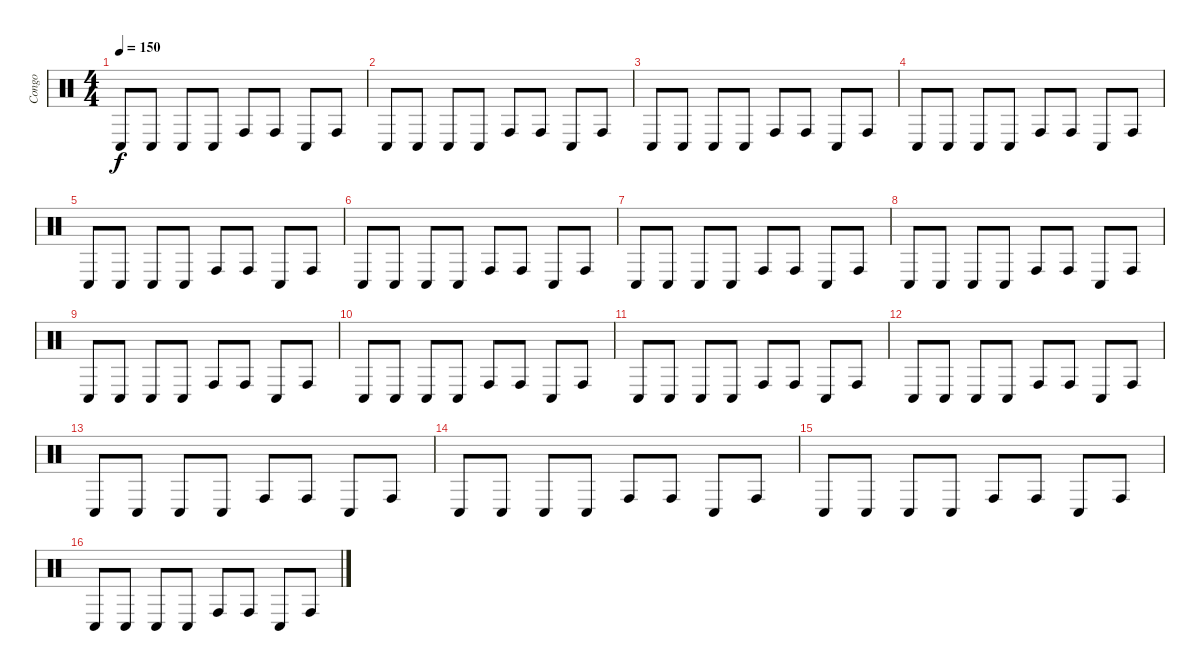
\track ("Congo" "Congo") {instrument percussion}
\staff {score}
\articulation defaults
\ts (4 4)
\tempo 150
\clef neutral
\ks c "Conga low (hit)".8{dy f} "Conga low (hit)".8 "Conga low (hit)".8 "Conga low (hit)".8 "Conga high (hit)".8 "Conga high (hit)".8 "Conga low (hit)".8 "Conga high (hit)".8
|
"Conga low (hit)".8 "Conga low (hit)".8 "Conga low (hit)".8 "Conga low (hit)".8 "Conga high (hit)".8 "Conga high (hit)".8 "Conga low (hit)".8 "Conga high (hit)".8 |
"Conga low (hit)".8 "Conga low (hit)".8 "Conga low (hit)".8 "Conga low (hit)".8 "Conga high (hit)".8 "Conga high (hit)".8 "Conga low (hit)".8 "Conga high (hit)".8 |
"Conga low (hit)".8 "Conga low (hit)".8 "Conga low (hit)".8 "Conga low (hit)".8 "Conga high (hit)".8 "Conga high (hit)".8 "Conga low (hit)".8 "Conga high (hit)".8 |
"Conga low (hit)".8 "Conga low (hit)".8 "Conga low (hit)".8 "Conga low (hit)".8 "Conga high (hit)".8 "Conga high (hit)".8 "Conga low (hit)".8 "Conga high (hit)".8 |
"Conga low (hit)".8 "Conga low (hit)".8 "Conga low (hit)".8 "Conga low (hit)".8 "Conga high (hit)".8 "Conga high (hit)".8 "Conga low (hit)".8 "Conga high (hit)".8 |
"Conga low (hit)".8 "Conga low (hit)".8 "Conga low (hit)".8 "Conga low (hit)".8 "Conga high (hit)".8 "Conga high (hit)".8 "Conga low (hit)".8 "Conga high (hit)".8 |
"Conga low (hit)".8 "Conga low (hit)".8 "Conga low (hit)".8 "Conga low (hit)".8 "Conga high (hit)".8 "Conga high (hit)".8 "Conga low (hit)".8 "Conga high (hit)".8 |
"Conga low (hit)".8 "Conga low (hit)".8 "Conga low (hit)".8 "Conga low (hit)".8 "Conga high (hit)".8 "Conga high (hit)".8 "Conga low (hit)".8 "Conga high (hit)".8 |
"Conga low (hit)".8 "Conga low (hit)".8 "Conga low (hit)".8 "Conga low (hit)".8 "Conga high (hit)".8 "Conga high (hit)".8 "Conga low (hit)".8 "Conga high (hit)".8 |
"Conga low (hit)".8 "Conga low (hit)".8 "Conga low (hit)".8 "Conga low (hit)".8 "Conga high (hit)".8 "Conga high (hit)".8 "Conga low (hit)".8 "Conga high (hit)".8 |
"Conga low (hit)".8 "Conga low (hit)".8 "Conga low (hit)".8 "Conga low (hit)".8 "Conga high (hit)".8 "Conga high (hit)".8 "Conga low (hit)".8 "Conga high (hit)".8 |
"Conga low (hit)".8 "Conga low (hit)".8 "Conga low (hit)".8 "Conga low (hit)".8 "Conga high (hit)".8 "Conga high (hit)".8 "Conga low (hit)".8 "Conga high (hit)".8 |
"Conga low (hit)".8 "Conga low (hit)".8 "Conga low (hit)".8 "Conga low (hit)".8 "Conga high (hit)".8 "Conga high (hit)".8 "Conga low (hit)".8 "Conga high (hit)".8 |
"Conga low (hit)".8 "Conga low (hit)".8 "Conga low (hit)".8 "Conga low (hit)".8 "Conga high (hit)".8 "Conga high (hit)".8 "Conga low (hit)".8 "Conga high (hit)".8 |
"Conga low (hit)".8 "Conga low (hit)".8 "Conga low (hit)".8 "Conga low (hit)".8 "Conga high (hit)".8 "Conga high (hit)".8 "Conga low (hit)".8 "Conga high (hit)".8
